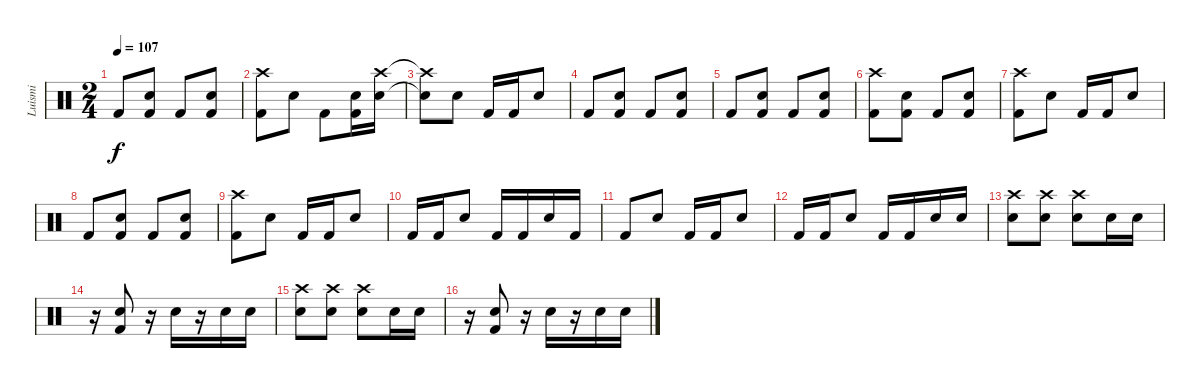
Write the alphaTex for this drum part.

\track ("Luismi" "Luismi") {instrument percussion}
\staff {score}
\articulation defaults
\ts (2 4)
\tempo 107
\clef neutral
\ks c "Kick (hit) 2".8{dy f}
("Snare (hit) 2" "Kick (hit) 2").8 "Kick (hit) 2".8 ("Snare (hit) 2" "Kick (hit) 2").8 |
("Crash high (hit)" "Kick (hit) 2").8 "Snare (hit) 2".8 "Kick (hit) 2".8 ("Snare (hit) 2" "Kick (hit) 2").16 ("Crash high (hit)" "Snare (hit) 2").16 |
("Crash high (hit)"{t} "Snare (hit)"{t}).8 "Snare (hit) 2".8 "Kick (hit) 2".16 "Kick (hit) 2".16 "Snare (hit) 2".8 |
"Kick (hit) 2".8 ("Snare (hit) 2" "Kick (hit) 2").8 "Kick (hit) 2".8 ("Snare (hit) 2" "Kick (hit) 2").8 |
"Kick (hit) 2".8 ("Snare (hit) 2" "Kick (hit) 2").8 "Kick (hit) 2".8 ("Snare (hit) 2" "Kick (hit) 2").8 |
("Crash high (hit)" "Kick (hit) 2").8 ("Snare (hit) 2" "Kick (hit) 2").8 "Kick (hit) 2".8 ("Snare (hit) 2" "Kick (hit) 2").8 |
("Crash high (hit)" "Kick (hit) 2").8 "Snare (hit) 2".8 "Kick (hit) 2".16 "Kick (hit) 2".16 "Snare (hit) 2".8 |
"Kick (hit) 2".8 ("Snare (hit) 2" "Kick (hit) 2").8 "Kick (hit) 2".8 ("Snare (hit) 2" "Kick (hit) 2").8 |
("Crash high (hit)" "Kick (hit) 2").8 "Snare (hit) 2".8 "Kick (hit) 2".16 "Kick (hit) 2".16 "Snare (hit) 2".8 |
"Kick (hit) 2".16 "Kick (hit) 2".16 "Snare (hit) 2".8 "Kick (hit) 2".16 "Kick (hit) 2".16 "Snare (hit) 2".16 "Kick (hit) 2".16 |
"Kick (hit) 2".8 "Snare (hit) 2".8 "Kick (hit) 2".16 "Kick (hit) 2".16 "Snare (hit) 2".8 |
"Kick (hit) 2".16 "Kick (hit) 2".16 "Snare (hit) 2".8 "Kick (hit) 2".16 "Kick (hit) 2".16 "Snare (hit) 2".16 "Snare (hit) 2".16 |
("Crash high (hit)" "Snare (hit) 2").8 ("Crash high (hit)" "Snare (hit) 2").8 ("Crash high (hit)" "Snare (hit) 2").8 "Electric Snare (hit)".16 "Snare (hit) 2".16 |
r.16 ("Snare (hit) 2" "Kick (hit) 2").8 r.16 "Snare (hit) 2".16 r.16 "Snare (hit) 2".16 "Snare (hit) 2".16 |
("Crash high (hit)" "Snare (hit) 2").8 ("Crash high (hit)" "Snare (hit) 2").8 ("Crash high (hit)" "Snare (hit) 2").8 "Electric Snare (hit)".16 "Snare (hit) 2".16 |
r.16 ("Snare (hit) 2" "Kick (hit) 2").8 r.16 "Snare (hit) 2".16 r.16 "Snare (hit) 2".16 "Snare (hit) 2".16
